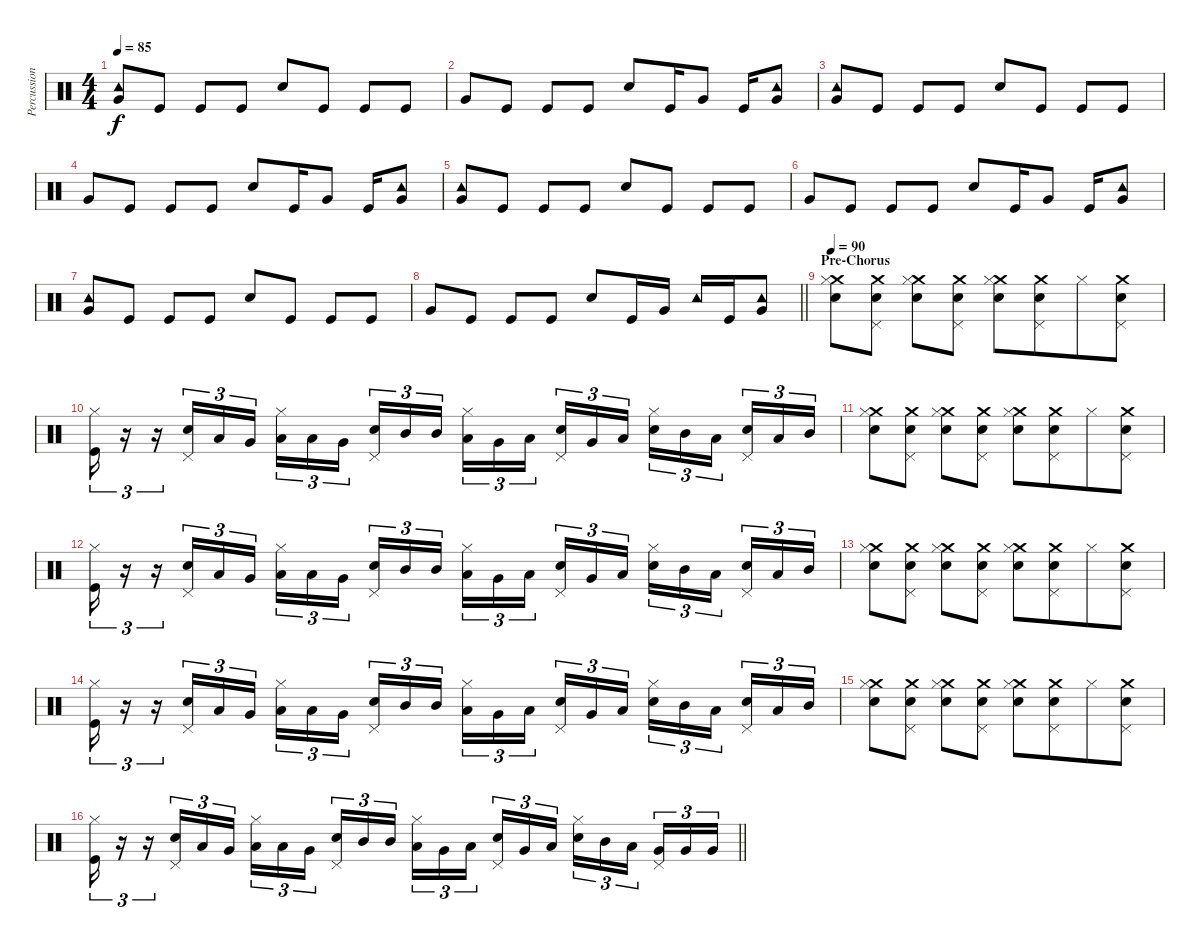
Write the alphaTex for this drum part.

\track ("Percussion" "Percussion") {instrument percussion}
\staff {score}
\articulation defaults
\ts (4 4)
\tempo 85
\clef neutral
\ks c
("Tambourine (hit)" "Very Low Tom (hit)").8{dy f} "Kick (hit)".8 "Kick (hit)".8 "Kick (hit)".8 "Electric Snare (hit)".8 "Kick (hit)".8 "Kick (hit)".8 "Kick (hit)".8 |
"Very Low Tom (hit)".8 "Kick (hit)".8 "Kick (hit)".8 "Kick (hit)".8 "Electric Snare (hit)".8 "Kick (hit)".16 "Very Low Tom (hit)".8 "Kick (hit)".16 ("Tambourine (hit)" "Very Low Tom (hit)").8 |
("Tambourine (hit)" "Very Low Tom (hit)").8 "Kick (hit)".8 "Kick (hit)".8 "Kick (hit)".8 "Electric Snare (hit)".8 "Kick (hit)".8 "Kick (hit)".8 "Kick (hit)".8 |
"Very Low Tom (hit)".8 "Kick (hit)".8 "Kick (hit)".8 "Kick (hit)".8 "Electric Snare (hit)".8 "Kick (hit)".16 "Very Low Tom (hit)".8 "Kick (hit)".16 ("Tambourine (hit)" "Very Low Tom (hit)").8 |
("Tambourine (hit)" "Very Low Tom (hit)").8 "Kick (hit)".8 "Kick (hit)".8 "Kick (hit)".8 "Electric Snare (hit)".8 "Kick (hit)".8 "Kick (hit)".8 "Kick (hit)".8 |
"Very Low Tom (hit)".8 "Kick (hit)".8 "Kick (hit)".8 "Kick (hit)".8 "Electric Snare (hit)".8 "Kick (hit)".16 "Very Low Tom (hit)".8 "Kick (hit)".16 ("Tambourine (hit)" "Very Low Tom (hit)").8 |
("Tambourine (hit)" "Very Low Tom (hit)").8 "Kick (hit)".8 "Kick (hit)".8 "Kick (hit)".8 "Electric Snare (hit)".8 "Kick (hit)".8 "Kick (hit)".8 "Kick (hit)".8 |
\barLineRight lightlight "Very Low Tom (hit)".8 "Kick (hit)".8 "Kick (hit)".8 "Kick (hit)".8 "Electric Snare (hit)".8 "Kick (hit)".16 "Very Low Tom (hit)".16 "Tambourine (hit)".16 "Kick (hit)".16
("Tambourine (hit)" "Very Low Tom (hit)").8 |
\section ("" "Pre-Chorus")
\tempo 90
("Crash medium (hit)" "Hi-Hat (closed)" "Snare (hit) 2").8 ("Crash medium (hit)" "Pedal Hi-Hat (hit)" "Snare (hit) 2").8 ("Crash medium (hit)" "Hi-Hat (closed)" "Snare (hit) 2").8{beam merge} ("Crash medium (hit)" "Pedal Hi-Hat (hit)" "Snare (hit) 2").8 ("Crash medium (hit)" "Hi-Hat (closed)" "Snare (hit) 2").8 ("Crash medium (hit)" "Pedal Hi-Hat (hit)" "Snare (hit) 2").8{beam merge} "Hi-Hat (closed)".8 ("Crash medium (hit)" "Pedal Hi-Hat (hit)" "Snare (hit) 2").8 |
("Hi-Hat (closed)" "Kick (hit)").16{tu (3 2)} r.16{tu (3 2)} r.16{tu (3 2)} ("Pedal Hi-Hat (hit)" "Snare (hit) 2").16{tu (3 2) beam merge} "Low Tom (hit)".16{tu (3 2)} "Very Low Tom (hit)".16{tu (3 2)} ("Hi-Hat (closed)" "Low Floor Tom (hit)").16{tu (3 2) beam merge} "Low Floor Tom (hit)".16{tu (3 2)} "Very Low Tom (hit)".16{tu (3 2) beam splitsecondary} ("Pedal Hi-Hat (hit)" "Snare (hit) 2").16{tu (3 2)} "Mid Tom (hit)".16{tu (3 2)} "Mid Tom (hit)".16{tu (3 2)} ("Hi-Hat (closed)" "Low Tom (hit)").16{tu (3 2)} "Very Low Tom (hit)".16{tu (3 2)} "Low Floor Tom (hit)".16{tu (3 2) beam splitsecondary} ("Pedal Hi-Hat (hit)" "Snare (hit) 2").16{tu (3 2)} "Very Low Tom (hit)".16{tu (3 2) beam merge} "Low Tom (hit)".16{tu (3 2)} ("Hi-Hat (closed)" "Snare (hit) 2").16{tu (3 2)} "Mid Tom (hit)".16{tu (3 2)} "Low Tom (hit)".16{tu (3 2) beam splitsecondary} ("Pedal Hi-Hat (hit)" "Snare (hit) 2").16{tu (3 2)} "Low Tom (hit)".16{tu (3 2)} "Mid Tom (hit)".16{tu (3 2)} |
("Crash medium (hit)" "Hi-Hat (closed)" "Snare (hit) 2").8 ("Crash medium (hit)" "Pedal Hi-Hat (hit)" "Snare (hit) 2").8 ("Crash medium (hit)" "Hi-Hat (closed)" "Snare (hit) 2").8{beam merge} ("Crash medium (hit)" "Pedal Hi-Hat (hit)" "Snare (hit) 2").8 ("Crash medium (hit)" "Hi-Hat (closed)" "Snare (hit) 2").8 ("Crash medium (hit)" "Pedal Hi-Hat (hit)" "Snare (hit) 2").8{beam merge} "Hi-Hat (closed)".8 ("Crash medium (hit)" "Pedal Hi-Hat (hit)" "Snare (hit) 2").8 |
("Hi-Hat (closed)" "Kick (hit)").16{tu (3 2)} r.16{tu (3 2)} r.16{tu (3 2)} ("Pedal Hi-Hat (hit)" "Snare (hit) 2").16{tu (3 2) beam merge} "Low Tom (hit)".16{tu (3 2)} "Very Low Tom (hit)".16{tu (3 2)} ("Hi-Hat (closed)" "Low Floor Tom (hit)").16{tu (3 2) beam merge} "Low Floor Tom (hit)".16{tu (3 2)} "Very Low Tom (hit)".16{tu (3 2) beam splitsecondary} ("Pedal Hi-Hat (hit)" "Snare (hit) 2").16{tu (3 2)} "Mid Tom (hit)".16{tu (3 2)} "Mid Tom (hit)".16{tu (3 2)} ("Hi-Hat (closed)" "Low Tom (hit)").16{tu (3 2)} "Very Low Tom (hit)".16{tu (3 2)} "Low Floor Tom (hit)".16{tu (3 2) beam splitsecondary} ("Pedal Hi-Hat (hit)" "Snare (hit) 2").16{tu (3 2)} "Very Low Tom (hit)".16{tu (3 2) beam merge} "Low Tom (hit)".16{tu (3 2)} ("Hi-Hat (closed)" "Snare (hit) 2").16{tu (3 2)} "Mid Tom (hit)".16{tu (3 2)} "Low Tom (hit)".16{tu (3 2) beam splitsecondary} ("Pedal Hi-Hat (hit)" "Snare (hit) 2").16{tu (3 2)} "Low Tom (hit)".16{tu (3 2)} "Mid Tom (hit)".16{tu (3 2)} |
("Crash medium (hit)" "Hi-Hat (closed)" "Snare (hit) 2").8 ("Crash medium (hit)" "Pedal Hi-Hat (hit)" "Snare (hit) 2").8 ("Crash medium (hit)" "Hi-Hat (closed)" "Snare (hit) 2").8{beam merge} ("Crash medium (hit)" "Pedal Hi-Hat (hit)" "Snare (hit) 2").8 ("Crash medium (hit)" "Hi-Hat (closed)" "Snare (hit) 2").8 ("Crash medium (hit)" "Pedal Hi-Hat (hit)" "Snare (hit) 2").8{beam merge} "Hi-Hat (closed)".8 ("Crash medium (hit)" "Pedal Hi-Hat (hit)" "Snare (hit) 2").8 |
("Hi-Hat (closed)" "Kick (hit)").16{tu (3 2)} r.16{tu (3 2)} r.16{tu (3 2)} ("Pedal Hi-Hat (hit)" "Snare (hit) 2").16{tu (3 2) beam merge} "Low Tom (hit)".16{tu (3 2)} "Very Low Tom (hit)".16{tu (3 2)} ("Hi-Hat (closed)" "Low Floor Tom (hit)").16{tu (3 2) beam merge} "Low Floor Tom (hit)".16{tu (3 2)} "Very Low Tom (hit)".16{tu (3 2) beam splitsecondary} ("Pedal Hi-Hat (hit)" "Snare (hit) 2").16{tu (3 2)} "Mid Tom (hit)".16{tu (3 2)} "Mid Tom (hit)".16{tu (3 2)} ("Hi-Hat (closed)" "Low Tom (hit)").16{tu (3 2)} "Very Low Tom (hit)".16{tu (3 2)} "Low Floor Tom (hit)".16{tu (3 2) beam splitsecondary} ("Pedal Hi-Hat (hit)" "Snare (hit) 2").16{tu (3 2)} "Very Low Tom (hit)".16{tu (3 2) beam merge} "Low Tom (hit)".16{tu (3 2)} ("Hi-Hat (closed)" "Snare (hit) 2").16{tu (3 2)} "Mid Tom (hit)".16{tu (3 2)} "Low Tom (hit)".16{tu (3 2) beam splitsecondary} ("Pedal Hi-Hat (hit)" "Snare (hit) 2").16{tu (3 2)} "Low Tom (hit)".16{tu (3 2)} "Mid Tom (hit)".16{tu (3 2)} |
("Crash medium (hit)" "Hi-Hat (closed)" "Snare (hit) 2").8 ("Crash medium (hit)" "Pedal Hi-Hat (hit)" "Snare (hit) 2").8 ("Crash medium (hit)" "Hi-Hat (closed)" "Snare (hit) 2").8{beam merge} ("Crash medium (hit)" "Pedal Hi-Hat (hit)" "Snare (hit) 2").8 ("Crash medium (hit)" "Hi-Hat (closed)" "Snare (hit) 2").8 ("Crash medium (hit)" "Pedal Hi-Hat (hit)" "Snare (hit) 2").8{beam merge} "Hi-Hat (closed)".8 ("Crash medium (hit)" "Pedal Hi-Hat (hit)" "Snare (hit) 2").8 |
\barLineRight lightlight
("Hi-Hat (closed)" "Kick (hit)").16{tu (3 2)} r.16{tu (3 2)} r.16{tu (3 2)} ("Pedal Hi-Hat (hit)" "Snare (hit) 2").16{tu (3 2) beam merge} "Low Tom (hit)".16{tu (3 2)} "Very Low Tom (hit)".16{tu (3 2)} ("Hi-Hat (closed)" "Low Floor Tom (hit)").16{tu (3 2) beam merge} "Low Floor Tom (hit)".16{tu (3 2)} "Very Low Tom (hit)".16{tu (3 2) beam splitsecondary} ("Pedal Hi-Hat (hit)" "Snare (hit) 2").16{tu (3 2)} "Mid Tom (hit)".16{tu (3 2)} "Mid Tom (hit)".16{tu (3 2)} ("Hi-Hat (closed)" "Low Tom (hit)").16{tu (3 2)} "Very Low Tom (hit)".16{tu (3 2)} "Low Floor Tom (hit)".16{tu (3 2) beam splitsecondary} ("Pedal Hi-Hat (hit)" "Snare (hit) 2").16{tu (3 2)} "Very Low Tom (hit)".16{tu (3 2) beam merge} "Low Tom (hit)".16{tu (3 2)} ("Hi-Hat (closed)" "Snare (hit) 2").16{tu (3 2)} "Mid Tom (hit)".16{tu (3 2)} "Low Tom (hit)".16{tu (3 2) beam splitsecondary} ("Pedal Hi-Hat (hit)" "Very Low Tom (hit)").16{tu (3 2)} "Very Low Tom (hit)".16{tu (3 2)} "Very Low Tom (hit)".16{tu (3 2)}
